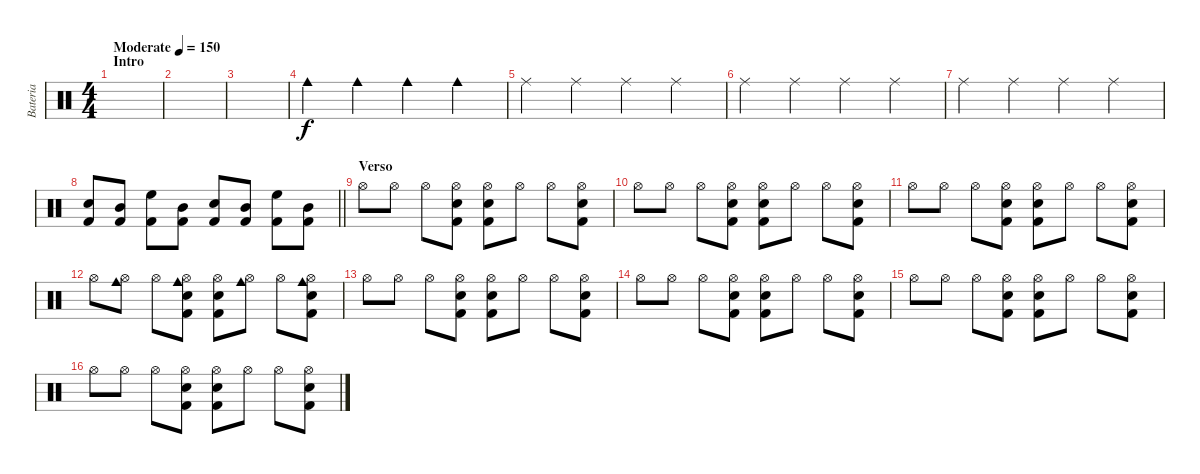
\track ("Bateria" "Bateria") {instrument percussion}
\staff {score}
\articulation defaults
\ts (4 4)
\section ("" "Intro")
\tempo (150 "Moderate")
\clef neutral
\ks c
|
|
|
"Cowbell medium (hit)".4 "Cowbell medium (hit)".4 "Cowbell medium (hit)".4 "Cowbell medium (hit)".4 |
"Ride (middle)".4 "Ride (middle)".4 "Ride (middle)".4 "Ride (middle)".4 |
"Ride (middle)".4 "Ride (middle)".4 "Ride (middle)".4 "Ride (middle)".4 |
"Ride (middle)".4 "Ride (middle)".4 "Ride (middle)".4 "Ride (middle)".4 |
\barLineRight lightlight
("Snare (hit) 2" "Kick (hit) 2").8 ("Mid Tom (hit)" "Kick (hit) 2").8 ("High Floor Tom (hit)" "Kick (hit) 2").8 ("Mid Tom (hit)" "Kick (hit) 2").8 ("Snare (hit) 2" "Kick (hit) 2").8 ("Mid Tom (hit)" "Kick (hit) 2").8 ("High Floor Tom (hit)" "Kick (hit) 2").8 ("Mid Tom (hit)" "Kick (hit) 2").8 |
\section ("" "Verso")
"Hi-Hat (open)".8 "Hi-Hat (open)".8 "Hi-Hat (open)".8 ("Hi-Hat (open)" "Electric Snare (hit)" "Kick (hit) 2").8 ("Hi-Hat (open)" "Electric Snare (hit)" "Kick (hit) 2").8 "Hi-Hat (open)".8 "Hi-Hat (open)".8 ("Hi-Hat (open)" "Electric Snare (hit)" "Kick (hit) 2").8 |
"Hi-Hat (open)".8 "Hi-Hat (open)".8 "Hi-Hat (open)".8 ("Hi-Hat (open)" "Electric Snare (hit)" "Kick (hit) 2").8 ("Hi-Hat (open)" "Electric Snare (hit)" "Kick (hit) 2").8 "Hi-Hat (open)".8 "Hi-Hat (open)".8 ("Hi-Hat (open)" "Electric Snare (hit)" "Kick (hit) 2").8 |
"Hi-Hat (open)".8 "Hi-Hat (open)".8 "Hi-Hat (open)".8 ("Hi-Hat (open)" "Electric Snare (hit)" "Kick (hit) 2").8 ("Hi-Hat (open)" "Electric Snare (hit)" "Kick (hit) 2").8 "Hi-Hat (open)".8 "Hi-Hat (open)".8 ("Hi-Hat (open)" "Electric Snare (hit)" "Kick (hit) 2").8 |
"Hi-Hat (open)".8 ("Cowbell medium (hit)" "Hi-Hat (open)").8 "Hi-Hat (open)".8 ("Cowbell medium (hit)" "Hi-Hat (open)" "Electric Snare (hit)" "Kick (hit) 2").8 ("Hi-Hat (open)" "Electric Snare (hit)" "Kick (hit) 2").8 ("Cowbell medium (hit)" "Hi-Hat (open)").8 "Hi-Hat (open)".8 ("Cowbell medium (hit)" "Hi-Hat (open)" "Electric Snare (hit)" "Kick (hit) 2").8 |
"Hi-Hat (open)".8 "Hi-Hat (open)".8 "Hi-Hat (open)".8 ("Hi-Hat (open)" "Electric Snare (hit)" "Kick (hit) 2").8 ("Hi-Hat (open)" "Electric Snare (hit)" "Kick (hit) 2").8 "Hi-Hat (open)".8 "Hi-Hat (open)".8 ("Hi-Hat (open)" "Electric Snare (hit)" "Kick (hit) 2").8 |
"Hi-Hat (open)".8 "Hi-Hat (open)".8 "Hi-Hat (open)".8 ("Hi-Hat (open)" "Electric Snare (hit)" "Kick (hit) 2").8 ("Hi-Hat (open)" "Electric Snare (hit)" "Kick (hit) 2").8 "Hi-Hat (open)".8 "Hi-Hat (open)".8 ("Hi-Hat (open)" "Electric Snare (hit)" "Kick (hit) 2").8 |
"Hi-Hat (open)".8 "Hi-Hat (open)".8 "Hi-Hat (open)".8 ("Hi-Hat (open)" "Electric Snare (hit)" "Kick (hit) 2").8 ("Hi-Hat (open)" "Electric Snare (hit)" "Kick (hit) 2").8 "Hi-Hat (open)".8 "Hi-Hat (open)".8 ("Hi-Hat (open)" "Electric Snare (hit)" "Kick (hit) 2").8 |
"Hi-Hat (open)".8 "Hi-Hat (open)".8 "Hi-Hat (open)".8 ("Hi-Hat (open)" "Electric Snare (hit)" "Kick (hit) 2").8 ("Hi-Hat (open)" "Electric Snare (hit)" "Kick (hit) 2").8 "Hi-Hat (open)".8 "Hi-Hat (open)".8 ("Hi-Hat (open)" "Electric Snare (hit)" "Kick (hit) 2").8
